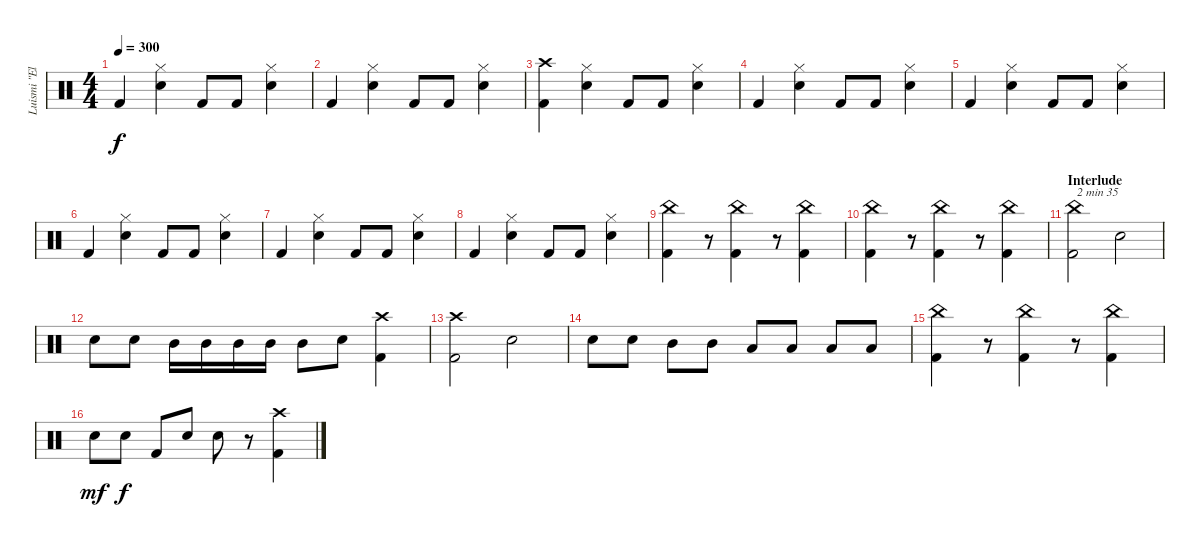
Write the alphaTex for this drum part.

\track ("Luismi \"El Papi\"" "Luismi \"El") {instrument percussion}
\staff {score}
\articulation defaults
\ts (4 4)
\tempo 300
\clef neutral
\ks c "Kick (hit) 2".4{dy f}
("Hi-Hat (closed)" "Snare (hit) 2").4 "Kick (hit) 2".8 "Kick (hit) 2".8 ("Hi-Hat (closed)" "Snare (hit) 2").4 |
"Kick (hit) 2".4 ("Hi-Hat (closed)" "Snare (hit) 2").4 "Kick (hit) 2".8 "Kick (hit) 2".8 ("Hi-Hat (closed)" "Snare (hit) 2").4 |
("Crash high (hit)" "Kick (hit) 2").4 ("Hi-Hat (closed)" "Snare (hit) 2").4 "Kick (hit) 2".8 "Kick (hit) 2".8 ("Hi-Hat (closed)" "Snare (hit) 2").4 |
"Kick (hit) 2".4 ("Hi-Hat (closed)" "Snare (hit) 2").4 "Kick (hit) 2".8 "Kick (hit) 2".8 ("Hi-Hat (closed)" "Snare (hit) 2").4 |
"Kick (hit) 2".4 ("Hi-Hat (closed)" "Snare (hit) 2").4 "Kick (hit) 2".8 "Kick (hit) 2".8 ("Hi-Hat (closed)" "Snare (hit) 2").4 |
"Kick (hit) 2".4 ("Hi-Hat (closed)" "Snare (hit) 2").4 "Kick (hit) 2".8 "Kick (hit) 2".8 ("Hi-Hat (closed)" "Snare (hit) 2").4 |
"Kick (hit) 2".4 ("Hi-Hat (closed)" "Snare (hit) 2").4 "Kick (hit) 2".8 "Kick (hit) 2".8 ("Hi-Hat (closed)" "Snare (hit) 2").4 |
"Kick (hit) 2".4 ("Hi-Hat (closed)" "Snare (hit) 2").4 "Kick (hit) 2".8 "Kick (hit) 2".8 ("Hi-Hat (closed)" "Snare (hit) 2").4 |
("China (hit)" "Kick (hit) 2").4 r.8 ("China (hit)" "Kick (hit) 2").4 r.8 ("China (hit)" "Kick (hit) 2").4 |
("China (hit)" "Kick (hit) 2").4 r.8 ("China (hit)" "Kick (hit) 2").4 r.8 ("China (hit)" "Kick (hit) 2").4 |
\section ("" "Interlude")
("China (hit)" "Kick (hit) 2").2{txt "2 min 35"} "Snare (hit) 2".2 |
"Snare (hit) 2".8 "Snare (hit) 2".8 "Mid Tom (hit)".16 "Mid Tom (hit)".16 "Mid Tom (hit)".16 "Mid Tom (hit)".16 "Mid Tom (hit)".8 "Snare (hit) 2".8 ("Crash high (hit)" "Kick (hit) 2").4 |
("Crash high (hit)" "Kick (hit) 2").2 "Snare (hit) 2".2 |
"Snare (hit) 2".8 "Snare (hit) 2".8 "Mid Tom (hit)".8 "Mid Tom (hit)".8 "Low Tom (hit)".8 "Low Tom (hit)".8 "Low Floor Tom (hit)".8 "Low Floor Tom (hit)".8 |
("China (hit)" "Kick (hit) 2").4 r.8 ("China (hit)" "Kick (hit) 2").4 r.8 ("China (hit)" "Kick (hit) 2").4 |
"Snare (hit) 2".8{dy mf} "Snare (hit) 2".8{dy f} "Kick (hit) 2".8 "Snare (hit) 2".8 "Snare (hit) 2".8 r.8 ("Crash high (hit)" "Kick (hit) 2").4
